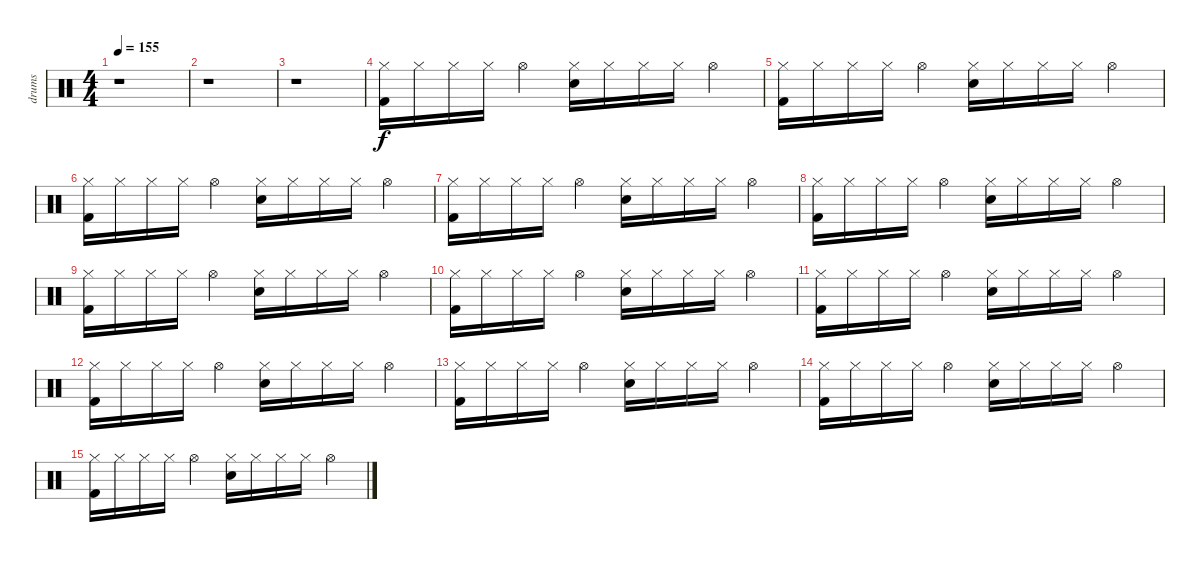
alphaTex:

\track ("drums" "drums") {instrument percussion}
\staff {score}
\articulation defaults
\ts (4 4)
\tempo 155
\clef neutral
\ks c
r.1{dy f} |
r.1 |
r.1 |
("Hi-Hat (closed)" "Kick (hit) 2").16 "Hi-Hat (closed)".16 "Hi-Hat (closed)".16 "Hi-Hat (closed)".16 "Hi-Hat (open)".4 ("Hi-Hat (closed)" "Electric Snare (hit)").16 "Hi-Hat (closed)".16 "Hi-Hat (closed)".16 "Hi-Hat (closed)".16 "Hi-Hat (open)".4 |
("Hi-Hat (closed)" "Kick (hit) 2").16 "Hi-Hat (closed)".16 "Hi-Hat (closed)".16 "Hi-Hat (closed)".16 "Hi-Hat (open)".4 ("Hi-Hat (closed)" "Electric Snare (hit)").16 "Hi-Hat (closed)".16 "Hi-Hat (closed)".16 "Hi-Hat (closed)".16 "Hi-Hat (open)".4 |
("Hi-Hat (closed)" "Kick (hit) 2").16 "Hi-Hat (closed)".16 "Hi-Hat (closed)".16 "Hi-Hat (closed)".16 "Hi-Hat (open)".4 ("Hi-Hat (closed)" "Electric Snare (hit)").16 "Hi-Hat (closed)".16 "Hi-Hat (closed)".16 "Hi-Hat (closed)".16 "Hi-Hat (open)".4 |
("Hi-Hat (closed)" "Kick (hit) 2").16 "Hi-Hat (closed)".16 "Hi-Hat (closed)".16 "Hi-Hat (closed)".16 "Hi-Hat (open)".4 ("Hi-Hat (closed)" "Electric Snare (hit)").16 "Hi-Hat (closed)".16 "Hi-Hat (closed)".16 "Hi-Hat (closed)".16 "Hi-Hat (open)".4 |
("Hi-Hat (closed)" "Kick (hit) 2").16 "Hi-Hat (closed)".16 "Hi-Hat (closed)".16 "Hi-Hat (closed)".16 "Hi-Hat (open)".4 ("Hi-Hat (closed)" "Electric Snare (hit)").16 "Hi-Hat (closed)".16 "Hi-Hat (closed)".16 "Hi-Hat (closed)".16 "Hi-Hat (open)".4 |
("Hi-Hat (closed)" "Kick (hit) 2").16 "Hi-Hat (closed)".16 "Hi-Hat (closed)".16 "Hi-Hat (closed)".16 "Hi-Hat (open)".4 ("Hi-Hat (closed)" "Electric Snare (hit)").16 "Hi-Hat (closed)".16 "Hi-Hat (closed)".16 "Hi-Hat (closed)".16 "Hi-Hat (open)".4 |
("Hi-Hat (closed)" "Kick (hit) 2").16 "Hi-Hat (closed)".16 "Hi-Hat (closed)".16 "Hi-Hat (closed)".16 "Hi-Hat (open)".4 ("Hi-Hat (closed)" "Electric Snare (hit)").16 "Hi-Hat (closed)".16 "Hi-Hat (closed)".16 "Hi-Hat (closed)".16 "Hi-Hat (open)".4 |
("Hi-Hat (closed)" "Kick (hit) 2").16 "Hi-Hat (closed)".16 "Hi-Hat (closed)".16 "Hi-Hat (closed)".16 "Hi-Hat (open)".4 ("Hi-Hat (closed)" "Electric Snare (hit)").16 "Hi-Hat (closed)".16 "Hi-Hat (closed)".16 "Hi-Hat (closed)".16 "Hi-Hat (open)".4 |
("Hi-Hat (closed)" "Kick (hit) 2").16 "Hi-Hat (closed)".16 "Hi-Hat (closed)".16 "Hi-Hat (closed)".16 "Hi-Hat (open)".4 ("Hi-Hat (closed)" "Electric Snare (hit)").16 "Hi-Hat (closed)".16 "Hi-Hat (closed)".16 "Hi-Hat (closed)".16 "Hi-Hat (open)".4 |
("Hi-Hat (closed)" "Kick (hit) 2").16 "Hi-Hat (closed)".16 "Hi-Hat (closed)".16 "Hi-Hat (closed)".16 "Hi-Hat (open)".4 ("Hi-Hat (closed)" "Electric Snare (hit)").16 "Hi-Hat (closed)".16 "Hi-Hat (closed)".16 "Hi-Hat (closed)".16 "Hi-Hat (open)".4 |
("Hi-Hat (closed)" "Kick (hit) 2").16 "Hi-Hat (closed)".16 "Hi-Hat (closed)".16 "Hi-Hat (closed)".16 "Hi-Hat (open)".4 ("Hi-Hat (closed)" "Electric Snare (hit)").16 "Hi-Hat (closed)".16 "Hi-Hat (closed)".16 "Hi-Hat (closed)".16 "Hi-Hat (open)".4 |
("Hi-Hat (closed)" "Kick (hit) 2").16 "Hi-Hat (closed)".16 "Hi-Hat (closed)".16 "Hi-Hat (closed)".16 "Hi-Hat (open)".4 ("Hi-Hat (closed)" "Electric Snare (hit)").16 "Hi-Hat (closed)".16 "Hi-Hat (closed)".16 "Hi-Hat (closed)".16 "Hi-Hat (open)".4
